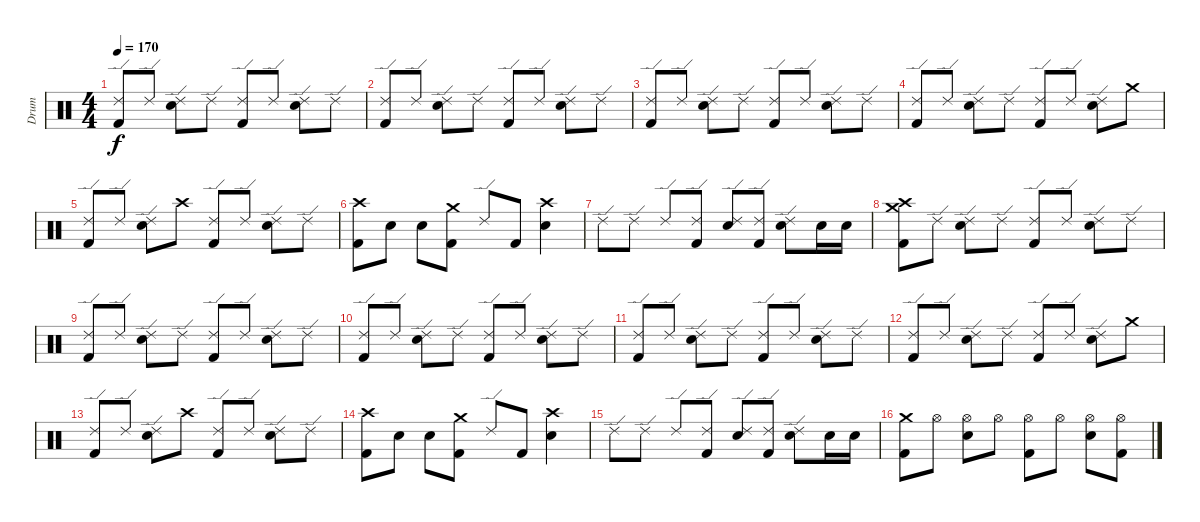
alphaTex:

\track ("Drum" "Drum") {instrument percussion}
\staff {score}
\articulation defaults
\ts (4 4)
\tempo 170
\clef neutral
\ks c
("Kick (hit) 2" "Ride (edge) 2").8{dy f} "Ride (edge) 2".8 ("Electric Snare (hit)" "Ride (edge) 2").8 "Ride (edge) 2".8 ("Kick (hit) 2" "Ride (edge) 2").8 "Ride (edge) 2".8 ("Electric Snare (hit)" "Ride (edge) 2").8 "Ride (edge) 2".8 |
("Kick (hit) 2" "Ride (edge) 2").8 "Ride (edge) 2".8 ("Electric Snare (hit)" "Ride (edge) 2").8 "Ride (edge) 2".8 ("Kick (hit) 2" "Ride (edge) 2").8 "Ride (edge) 2".8 ("Electric Snare (hit)" "Ride (edge) 2").8 "Ride (edge) 2".8 |
("Kick (hit) 2" "Ride (edge) 2").8 "Ride (edge) 2".8 ("Electric Snare (hit)" "Ride (edge) 2").8 "Ride (edge) 2".8 ("Kick (hit) 2" "Ride (edge) 2").8 "Ride (edge) 2".8 ("Electric Snare (hit)" "Ride (edge) 2").8 "Ride (edge) 2".8 |
("Kick (hit) 2" "Ride (edge) 2").8 "Ride (edge) 2".8 ("Electric Snare (hit)" "Ride (edge) 2").8 "Ride (edge) 2".8 ("Kick (hit) 2" "Ride (edge) 2").8 "Ride (edge) 2".8 ("Electric Snare (hit)" "Ride (edge) 2").8 "Crash medium (hit)".8 |
("Kick (hit) 2" "Ride (edge) 2").8 "Ride (edge) 2".8 ("Electric Snare (hit)" "Ride (edge) 2").8 "Crash high (hit)".8 ("Kick (hit) 2" "Ride (edge) 2").8 "Ride (edge) 2".8 ("Electric Snare (hit)" "Ride (edge) 2").8 "Ride (edge) 2".8 |
("Kick (hit) 2" "Crash high (hit)").8 "Electric Snare (hit)".8 "Electric Snare (hit)".8 ("Kick (hit) 2" "Crash medium (hit)").8 "Ride (edge) 2".8 "Kick (hit) 2".8 ("Electric Snare (hit)" "Crash high (hit)").4 |
"Ride (edge) 2".8 "Ride (edge) 2".8 "Ride (edge) 2".8 ("Kick (hit) 2" "Ride (edge) 2").8 ("Electric Snare (hit)" "Ride (edge) 2").8 ("Kick (hit) 2" "Ride (edge) 2").8 ("Electric Snare (hit)" "Ride (edge) 2").8 "Electric Snare (hit)".16 "Electric Snare (hit)".16 |
("Kick (hit) 2" "Crash medium (hit)" "Crash high (hit)").8 "Ride (edge) 2".8 ("Electric Snare (hit)" "Ride (edge) 2").8 "Ride (edge) 2".8 ("Kick (hit) 2" "Ride (edge) 2").8 "Ride (edge) 2".8 ("Electric Snare (hit)" "Ride (edge) 2").8 "Ride (edge) 2".8 |
("Kick (hit) 2" "Ride (edge) 2").8 "Ride (edge) 2".8 ("Electric Snare (hit)" "Ride (edge) 2").8 "Ride (edge) 2".8 ("Kick (hit) 2" "Ride (edge) 2").8 "Ride (edge) 2".8 ("Electric Snare (hit)" "Ride (edge) 2").8 "Ride (edge) 2".8 |
("Kick (hit) 2" "Ride (edge) 2").8 "Ride (edge) 2".8 ("Electric Snare (hit)" "Ride (edge) 2").8 "Ride (edge) 2".8 ("Kick (hit) 2" "Ride (edge) 2").8 "Ride (edge) 2".8 ("Electric Snare (hit)" "Ride (edge) 2").8 "Ride (edge) 2".8 |
("Kick (hit) 2" "Ride (edge) 2").8 "Ride (edge) 2".8 ("Electric Snare (hit)" "Ride (edge) 2").8 "Ride (edge) 2".8 ("Kick (hit) 2" "Ride (edge) 2").8 "Ride (edge) 2".8 ("Electric Snare (hit)" "Ride (edge) 2").8 "Ride (edge) 2".8 |
("Kick (hit) 2" "Ride (edge) 2").8 "Ride (edge) 2".8 ("Electric Snare (hit)" "Ride (edge) 2").8 "Ride (edge) 2".8 ("Kick (hit) 2" "Ride (edge) 2").8 "Ride (edge) 2".8 ("Electric Snare (hit)" "Ride (edge) 2").8 "Crash medium (hit)".8 |
("Kick (hit) 2" "Ride (edge) 2").8 "Ride (edge) 2".8 ("Electric Snare (hit)" "Ride (edge) 2").8 "Crash high (hit)".8 ("Kick (hit) 2" "Ride (edge) 2").8 "Ride (edge) 2".8 ("Electric Snare (hit)" "Ride (edge) 2").8 "Ride (edge) 2".8 |
("Kick (hit) 2" "Crash high (hit)").8 "Electric Snare (hit)".8 "Electric Snare (hit)".8 ("Kick (hit) 2" "Crash medium (hit)").8 "Ride (edge) 2".8 "Kick (hit) 2".8 ("Electric Snare (hit)" "Crash high (hit)").4 |
"Ride (edge) 2".8 "Ride (edge) 2".8 "Ride (edge) 2".8 ("Kick (hit) 2" "Ride (edge) 2").8 ("Electric Snare (hit)" "Ride (edge) 2").8 ("Kick (hit) 2" "Ride (edge) 2").8 ("Electric Snare (hit)" "Ride (edge) 2").8 "Electric Snare (hit)".16 "Electric Snare (hit)".16 |
("Kick (hit) 2" "Crash medium (hit)").8 "Hi-Hat (open)".8 ("Electric Snare (hit)" "Hi-Hat (open)").8 "Hi-Hat (open)".8 ("Kick (hit) 2" "Hi-Hat (open)").8 "Hi-Hat (open)".8 ("Electric Snare (hit)" "Hi-Hat (open)").8 ("Kick (hit) 2" "Hi-Hat (open)").8
